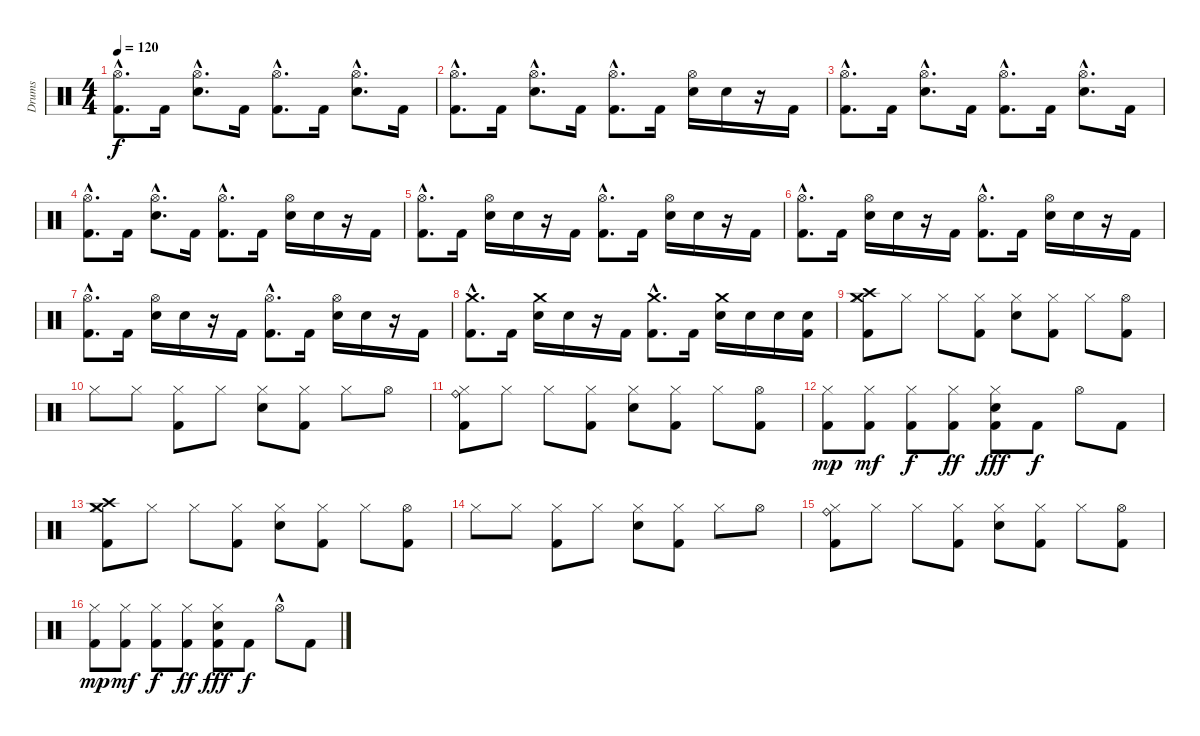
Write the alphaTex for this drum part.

\track ("Drums" "Drums") {instrument percussion}
\staff {score}
\articulation defaults
\ts (4 4)
\tempo 120
\clef neutral
\ks c
("Hi-Hat (open)" "Kick (hit) 2"{hac}).8{d dy f} "Kick (hit) 2".16 ("Hi-Hat (open)" "Snare (hit) 2"{hac}).8{d} "Kick (hit) 2".16 ("Hi-Hat (open)" "Kick (hit) 2"{hac}).8{d} "Kick (hit) 2".16 ("Hi-Hat (open)" "Snare (hit) 2"{hac}).8{d} "Kick (hit) 2".16 |
("Hi-Hat (open)" "Kick (hit) 2"{hac}).8{d} "Kick (hit) 2".16 ("Hi-Hat (open)" "Snare (hit) 2"{hac}).8{d} "Kick (hit) 2".16 ("Hi-Hat (open)" "Kick (hit) 2"{hac}).8{d} "Kick (hit) 2".16 ("Hi-Hat (open)" "Snare (hit) 2").16 "Snare (hit) 2".16 r.16 "Kick (hit) 2".16 |
("Hi-Hat (open)" "Kick (hit) 2"{hac}).8{d} "Kick (hit) 2".16 ("Hi-Hat (open)" "Snare (hit) 2"{hac}).8{d} "Kick (hit) 2".16 ("Hi-Hat (open)" "Kick (hit) 2"{hac}).8{d} "Kick (hit) 2".16 ("Hi-Hat (open)" "Snare (hit) 2"{hac}).8{d} "Kick (hit) 2".16 |
("Hi-Hat (open)" "Kick (hit) 2"{hac}).8{d} "Kick (hit) 2".16 ("Hi-Hat (open)" "Snare (hit) 2"{hac}).8{d} "Kick (hit) 2".16 ("Hi-Hat (open)" "Kick (hit) 2"{hac}).8{d} "Kick (hit) 2".16 ("Hi-Hat (open)" "Snare (hit) 2").16 "Snare (hit) 2".16 r.16 "Kick (hit) 2".16 |
("Hi-Hat (open)" "Kick (hit) 2"{hac}).8{d} "Kick (hit) 2".16 ("Hi-Hat (open)" "Snare (hit) 2").16 "Snare (hit) 2".16 r.16 "Kick (hit) 2".16 ("Hi-Hat (open)" "Kick (hit) 2"{hac}).8{d} "Kick (hit) 2".16 ("Hi-Hat (open)" "Snare (hit) 2").16 "Snare (hit) 2".16 r.16 "Kick (hit) 2".16 |
("Hi-Hat (open)" "Kick (hit) 2"{hac}).8{d} "Kick (hit) 2".16 ("Hi-Hat (open)" "Snare (hit) 2").16 "Snare (hit) 2".16 r.16 "Kick (hit) 2".16 ("Hi-Hat (open)" "Kick (hit) 2"{hac}).8{d} "Kick (hit) 2".16 ("Hi-Hat (open)" "Snare (hit) 2").16 "Snare (hit) 2".16 r.16 "Kick (hit) 2".16 |
("Hi-Hat (open)" "Kick (hit) 2"{hac}).8{d} "Kick (hit) 2".16 ("Hi-Hat (open)" "Snare (hit) 2").16 "Snare (hit) 2".16 r.16 "Kick (hit) 2".16 ("Hi-Hat (open)" "Kick (hit) 2"{hac}).8{d} "Kick (hit) 2".16 ("Hi-Hat (open)" "Snare (hit) 2").16 "Snare (hit) 2".16 r.16 "Kick (hit) 2".16 |
("Crash medium (hit)" "Kick (hit) 2"{hac}).8{d} "Kick (hit) 2".16 ("Crash medium (hit)" "Snare (hit) 2").16 "Snare (hit) 2".16 r.16 "Kick (hit) 2".16 ("Crash medium (hit)" "Kick (hit) 2"{hac}).8{d} "Kick (hit) 2".16 ("Crash medium (hit)" "Snare (hit) 2").16 "Snare (hit) 2".16 "Snare (hit) 2".16 ("Kick (hit) 2" "Snare (hit) 2").16 |
("Crash medium (hit)" "Crash high (hit)" "Hi-Hat (closed)" "Kick (hit) 2").8 "Hi-Hat (closed)".8 "Hi-Hat (closed)".8 ("Hi-Hat (closed)" "Kick (hit) 2").8 ("Hi-Hat (closed)" "Snare (hit) 2").8 ("Hi-Hat (closed)" "Kick (hit) 2").8 "Hi-Hat (closed)".8 ("Hi-Hat (open)" "Kick (hit) 2").8 |
"Hi-Hat (closed)".8 "Hi-Hat (closed)".8 ("Hi-Hat (closed)" "Kick (hit) 2").8 "Hi-Hat (closed)".8 ("Hi-Hat (closed)" "Snare (hit) 2").8 ("Hi-Hat (closed)" "Kick (hit) 2").8 "Hi-Hat (closed)".8 "Hi-Hat (open)".8 |
("Ride (bell)" "Hi-Hat (closed)" "Kick (hit) 2").8 "Hi-Hat (closed)".8 "Hi-Hat (closed)".8 ("Hi-Hat (closed)" "Kick (hit) 2").8 ("Hi-Hat (closed)" "Snare (hit) 2").8 ("Hi-Hat (closed)" "Kick (hit) 2").8 "Hi-Hat (closed)".8 ("Hi-Hat (open)" "Kick (hit) 2").8 |
("Hi-Hat (closed)" "Kick (hit) 2").8{dy mp} ("Hi-Hat (closed)" "Kick (hit) 2").8{dy mf} ("Hi-Hat (closed)" "Kick (hit) 2").8{dy f} ("Hi-Hat (closed)" "Kick (hit) 2").8{dy ff} ("Hi-Hat (closed)" "Kick (hit) 2" "Snare (hit) 2").8{dy fff} "Kick (hit) 2".8{dy f} "Hi-Hat (open)".8 "Kick (hit) 2".8 |
("Crash medium (hit)" "Crash high (hit)" "Hi-Hat (closed)" "Kick (hit) 2").8 "Hi-Hat (closed)".8 "Hi-Hat (closed)".8 ("Hi-Hat (closed)" "Kick (hit) 2").8 ("Hi-Hat (closed)" "Snare (hit) 2").8 ("Hi-Hat (closed)" "Kick (hit) 2").8 "Hi-Hat (closed)".8 ("Hi-Hat (open)" "Kick (hit) 2").8 |
"Hi-Hat (closed)".8 "Hi-Hat (closed)".8 ("Hi-Hat (closed)" "Kick (hit) 2").8 "Hi-Hat (closed)".8 ("Hi-Hat (closed)" "Snare (hit) 2").8 ("Hi-Hat (closed)" "Kick (hit) 2").8 "Hi-Hat (closed)".8 "Hi-Hat (open)".8 |
("Ride (bell)" "Hi-Hat (closed)" "Kick (hit) 2").8 "Hi-Hat (closed)".8 "Hi-Hat (closed)".8 ("Hi-Hat (closed)" "Kick (hit) 2").8 ("Hi-Hat (closed)" "Snare (hit) 2").8 ("Hi-Hat (closed)" "Kick (hit) 2").8 "Hi-Hat (closed)".8 ("Hi-Hat (open)" "Kick (hit) 2").8 |
("Hi-Hat (closed)" "Kick (hit) 2").8{dy mp} ("Hi-Hat (closed)" "Kick (hit) 2").8{dy mf} ("Hi-Hat (closed)" "Kick (hit) 2").8{dy f} ("Hi-Hat (closed)" "Kick (hit) 2").8{dy ff} ("Hi-Hat (closed)" "Kick (hit) 2" "Snare (hit) 2").8{dy fff} "Kick (hit) 2".8{dy f} "Hi-Hat (open)"{hac}.8 "Kick (hit) 2".8
